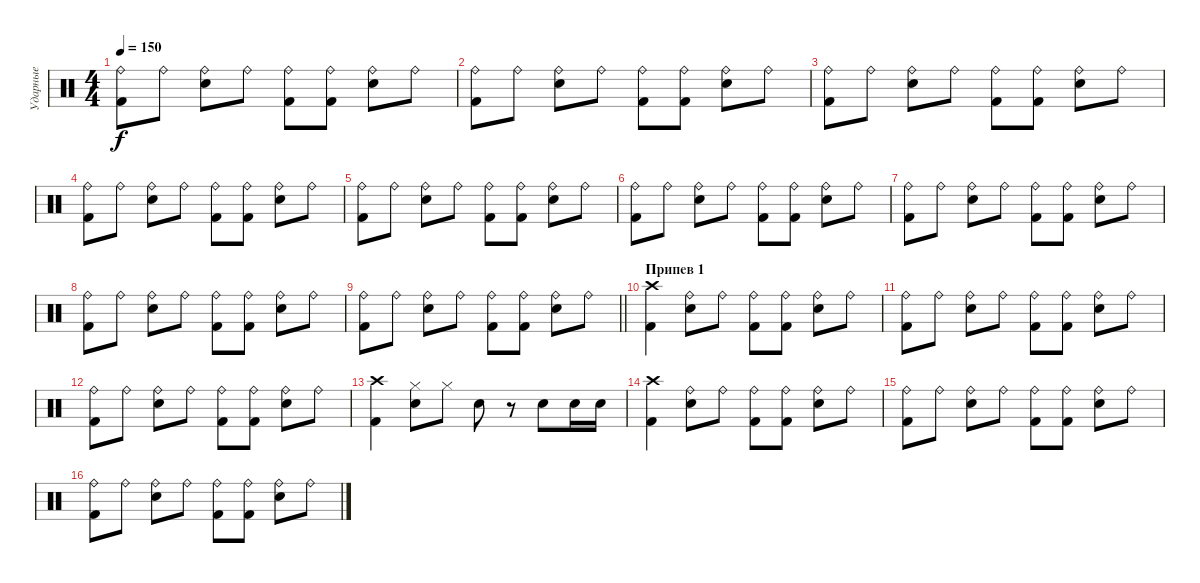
\track ("Ударные" "Ударные") {instrument percussion}
\staff {score}
\articulation defaults
\ts (4 4)
\tempo 150
\clef neutral
\ks c
("Ride (bell)" "Kick (hit) 2").8{dy f} "Ride (bell)".8 ("Ride (bell)" "Electric Snare (hit)").8 "Ride (bell)".8 ("Ride (bell)" "Kick (hit) 2").8 ("Ride (bell)" "Kick (hit) 2").8 ("Ride (bell)" "Electric Snare (hit)").8 "Ride (bell)".8 |
("Ride (bell)" "Kick (hit) 2").8 "Ride (bell)".8 ("Ride (bell)" "Electric Snare (hit)").8 "Ride (bell)".8 ("Ride (bell)" "Kick (hit) 2").8 ("Ride (bell)" "Kick (hit) 2").8 ("Ride (bell)" "Electric Snare (hit)").8 "Ride (bell)".8 |
("Ride (bell)" "Kick (hit) 2").8 "Ride (bell)".8 ("Ride (bell)" "Electric Snare (hit)").8 "Ride (bell)".8 ("Ride (bell)" "Kick (hit) 2").8 ("Ride (bell)" "Kick (hit) 2").8 ("Ride (bell)" "Electric Snare (hit)").8 "Ride (bell)".8 |
("Ride (bell)" "Kick (hit) 2").8 "Ride (bell)".8 ("Ride (bell)" "Electric Snare (hit)").8 "Ride (bell)".8 ("Ride (bell)" "Kick (hit) 2").8 ("Ride (bell)" "Kick (hit) 2").8 ("Ride (bell)" "Electric Snare (hit)").8 "Ride (bell)".8 |
("Ride (bell)" "Kick (hit) 2").8 "Ride (bell)".8 ("Ride (bell)" "Electric Snare (hit)").8 "Ride (bell)".8 ("Ride (bell)" "Kick (hit) 2").8 ("Ride (bell)" "Kick (hit) 2").8 ("Ride (bell)" "Electric Snare (hit)").8 "Ride (bell)".8 |
("Ride (bell)" "Kick (hit) 2").8 "Ride (bell)".8 ("Ride (bell)" "Electric Snare (hit)").8 "Ride (bell)".8 ("Ride (bell)" "Kick (hit) 2").8 ("Ride (bell)" "Kick (hit) 2").8 ("Ride (bell)" "Electric Snare (hit)").8 "Ride (bell)".8 |
("Ride (bell)" "Kick (hit) 2").8 "Ride (bell)".8 ("Ride (bell)" "Electric Snare (hit)").8 "Ride (bell)".8 ("Ride (bell)" "Kick (hit) 2").8 ("Ride (bell)" "Kick (hit) 2").8 ("Ride (bell)" "Electric Snare (hit)").8 "Ride (bell)".8 |
("Ride (bell)" "Kick (hit) 2").8 "Ride (bell)".8 ("Ride (bell)" "Electric Snare (hit)").8 "Ride (bell)".8 ("Ride (bell)" "Kick (hit) 2").8 ("Ride (bell)" "Kick (hit) 2").8 ("Ride (bell)" "Electric Snare (hit)").8 "Ride (bell)".8 |
\barLineRight lightlight
("Ride (bell)" "Kick (hit) 2").8 "Ride (bell)".8 ("Ride (bell)" "Electric Snare (hit)").8 "Ride (bell)".8 ("Ride (bell)" "Kick (hit) 2").8 ("Ride (bell)" "Kick (hit) 2").8 ("Ride (bell)" "Electric Snare (hit)").8 "Ride (bell)".8 |
\section ("" "Припев 1")
("Crash high (hit)" "Kick (hit) 2").4 ("Ride (bell)" "Electric Snare (hit)").8 "Ride (bell)".8 ("Ride (bell)" "Kick (hit) 2").8 ("Ride (bell)" "Kick (hit) 2").8 ("Ride (bell)" "Electric Snare (hit)").8 "Ride (bell)".8 |
("Ride (bell)" "Kick (hit) 2").8 "Ride (bell)".8 ("Ride (bell)" "Electric Snare (hit)").8 "Ride (bell)".8 ("Ride (bell)" "Kick (hit) 2").8 ("Ride (bell)" "Kick (hit) 2").8 ("Ride (bell)" "Electric Snare (hit)").8 "Ride (bell)".8 |
("Ride (bell)" "Kick (hit) 2").8 "Ride (bell)".8 ("Ride (bell)" "Electric Snare (hit)").8 "Ride (bell)".8 ("Ride (bell)" "Kick (hit) 2").8 ("Ride (bell)" "Kick (hit) 2").8 ("Ride (bell)" "Electric Snare (hit)").8 "Ride (bell)".8 |
("Crash high (hit)" "Kick (hit) 2").4 ("Hi-Hat (closed)" "Electric Snare (hit)").8 "Hi-Hat (closed)".8 "Electric Snare (hit)".8 r.8 "Electric Snare (hit)".8 "Electric Snare (hit)".16 "Electric Snare (hit)".16 |
("Crash high (hit)" "Kick (hit) 2").4 ("Ride (bell)" "Electric Snare (hit)").8 "Ride (bell)".8 ("Ride (bell)" "Kick (hit) 2").8 ("Ride (bell)" "Kick (hit) 2").8 ("Ride (bell)" "Electric Snare (hit)").8 "Ride (bell)".8 |
("Ride (bell)" "Kick (hit) 2").8 "Ride (bell)".8 ("Ride (bell)" "Electric Snare (hit)").8 "Ride (bell)".8 ("Ride (bell)" "Kick (hit) 2").8 ("Ride (bell)" "Kick (hit) 2").8 ("Ride (bell)" "Electric Snare (hit)").8 "Ride (bell)".8 |
("Ride (bell)" "Kick (hit) 2").8 "Ride (bell)".8 ("Ride (bell)" "Electric Snare (hit)").8 "Ride (bell)".8 ("Ride (bell)" "Kick (hit) 2").8 ("Ride (bell)" "Kick (hit) 2").8 ("Ride (bell)" "Electric Snare (hit)").8 "Ride (bell)".8
